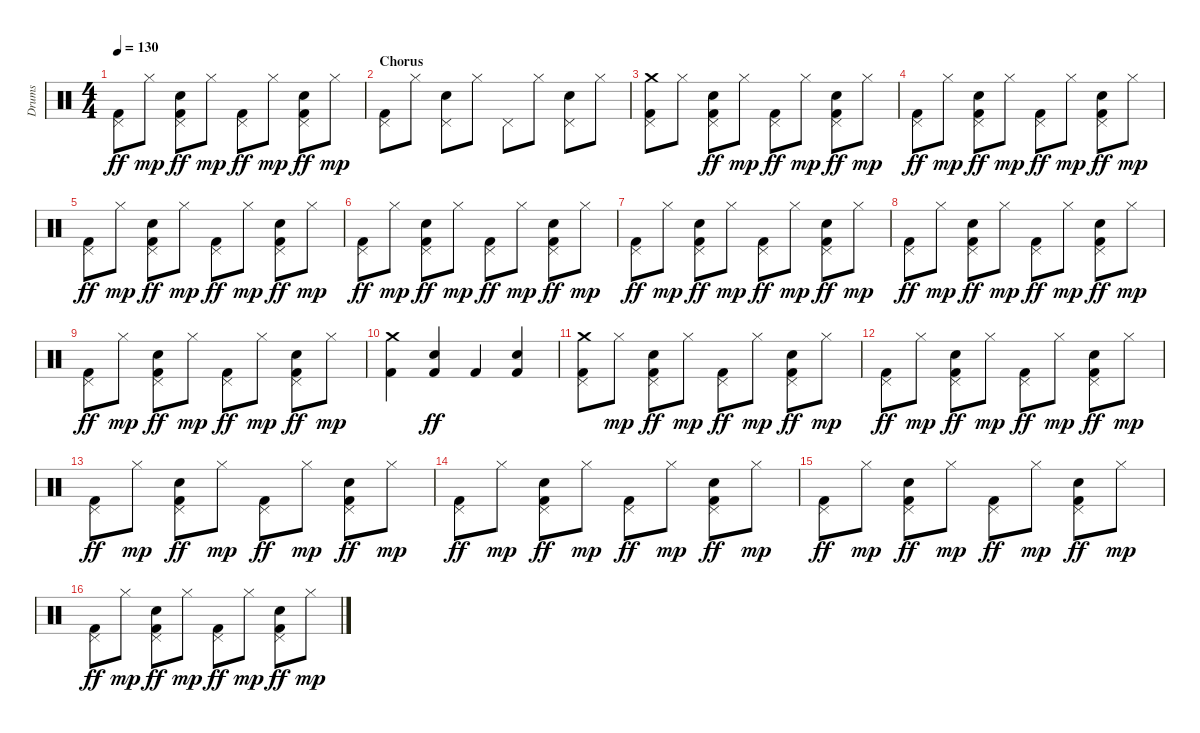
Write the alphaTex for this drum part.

\track ("Drums" "Drums") {instrument percussion}
\staff {score}
\articulation defaults
\ts (4 4)
\tempo 130
\clef neutral
\ks c
("Pedal Hi-Hat (hit)" "Kick (hit) 2").8{dy ff} "Hi-Hat (closed)".8{dy mp} ("Electric Snare (hit)" "Pedal Hi-Hat (hit)" "Kick (hit) 2").8{dy ff} "Hi-Hat (closed)".8{dy mp} ("Pedal Hi-Hat (hit)" "Kick (hit) 2").8{dy ff} "Hi-Hat (closed)".8{dy mp} ("Electric Snare (hit)" "Pedal Hi-Hat (hit)" "Kick (hit) 2").8{dy ff} "Hi-Hat (closed)".8{dy mp} |
\section ("" "Chorus")
("Kick (hit) 2" "Pedal Hi-Hat (hit)").8 "Hi-Hat (closed)".8 ("Electric Snare (hit)" "Pedal Hi-Hat (hit)").8 "Hi-Hat (closed)".8 "Pedal Hi-Hat (hit)".8 "Hi-Hat (closed)".8 ("Electric Snare (hit)" "Pedal Hi-Hat (hit)").8 "Hi-Hat (closed)".8 |
("Pedal Hi-Hat (hit)" "Kick (hit) 2" "Crash medium (hit)").8 "Hi-Hat (closed)".8 ("Electric Snare (hit)" "Pedal Hi-Hat (hit)" "Kick (hit) 2").8{dy ff} "Hi-Hat (closed)".8{dy mp} ("Pedal Hi-Hat (hit)" "Kick (hit) 2").8{dy ff} "Hi-Hat (closed)".8{dy mp} ("Electric Snare (hit)" "Pedal Hi-Hat (hit)" "Kick (hit) 2").8{dy ff} "Hi-Hat (closed)".8{dy mp} |
("Pedal Hi-Hat (hit)" "Kick (hit) 2").8{dy ff} "Hi-Hat (closed)".8{dy mp} ("Electric Snare (hit)" "Pedal Hi-Hat (hit)" "Kick (hit) 2").8{dy ff} "Hi-Hat (closed)".8{dy mp} ("Pedal Hi-Hat (hit)" "Kick (hit) 2").8{dy ff} "Hi-Hat (closed)".8{dy mp} ("Electric Snare (hit)" "Pedal Hi-Hat (hit)" "Kick (hit) 2").8{dy ff} "Hi-Hat (closed)".8{dy mp} |
("Pedal Hi-Hat (hit)" "Kick (hit) 2").8{dy ff} "Hi-Hat (closed)".8{dy mp} ("Electric Snare (hit)" "Pedal Hi-Hat (hit)" "Kick (hit) 2").8{dy ff} "Hi-Hat (closed)".8{dy mp} ("Pedal Hi-Hat (hit)" "Kick (hit) 2").8{dy ff} "Hi-Hat (closed)".8{dy mp} ("Electric Snare (hit)" "Pedal Hi-Hat (hit)" "Kick (hit) 2").8{dy ff} "Hi-Hat (closed)".8{dy mp} |
("Pedal Hi-Hat (hit)" "Kick (hit) 2").8{dy ff} "Hi-Hat (closed)".8{dy mp} ("Electric Snare (hit)" "Pedal Hi-Hat (hit)" "Kick (hit) 2").8{dy ff} "Hi-Hat (closed)".8{dy mp} ("Pedal Hi-Hat (hit)" "Kick (hit) 2").8{dy ff} "Hi-Hat (closed)".8{dy mp} ("Electric Snare (hit)" "Pedal Hi-Hat (hit)" "Kick (hit) 2").8{dy ff} "Hi-Hat (closed)".8{dy mp} |
("Pedal Hi-Hat (hit)" "Kick (hit) 2").8{dy ff} "Hi-Hat (closed)".8{dy mp} ("Electric Snare (hit)" "Pedal Hi-Hat (hit)" "Kick (hit) 2").8{dy ff} "Hi-Hat (closed)".8{dy mp} ("Pedal Hi-Hat (hit)" "Kick (hit) 2").8{dy ff} "Hi-Hat (closed)".8{dy mp} ("Electric Snare (hit)" "Pedal Hi-Hat (hit)" "Kick (hit) 2").8{dy ff} "Hi-Hat (closed)".8{dy mp} |
("Pedal Hi-Hat (hit)" "Kick (hit) 2").8{dy ff} "Hi-Hat (closed)".8{dy mp} ("Electric Snare (hit)" "Pedal Hi-Hat (hit)" "Kick (hit) 2").8{dy ff} "Hi-Hat (closed)".8{dy mp} ("Pedal Hi-Hat (hit)" "Kick (hit) 2").8{dy ff} "Hi-Hat (closed)".8{dy mp} ("Electric Snare (hit)" "Pedal Hi-Hat (hit)" "Kick (hit) 2").8{dy ff} "Hi-Hat (closed)".8{dy mp} |
("Pedal Hi-Hat (hit)" "Kick (hit) 2").8{dy ff} "Hi-Hat (closed)".8{dy mp} ("Electric Snare (hit)" "Pedal Hi-Hat (hit)" "Kick (hit) 2").8{dy ff} "Hi-Hat (closed)".8{dy mp} ("Pedal Hi-Hat (hit)" "Kick (hit) 2").8{dy ff} "Hi-Hat (closed)".8{dy mp} ("Electric Snare (hit)" "Pedal Hi-Hat (hit)" "Kick (hit) 2").8{dy ff} "Hi-Hat (closed)".8{dy mp} |
("Kick (hit) 2" "Crash medium (hit)").4 ("Electric Snare (hit)" "Kick (hit) 2").4{dy ff} "Kick (hit) 2".4 ("Electric Snare (hit)" "Kick (hit) 2").4 |
("Crash medium (hit)" "Pedal Hi-Hat (hit)" "Kick (hit) 2").8 "Hi-Hat (closed)".8{dy mp} ("Electric Snare (hit)" "Pedal Hi-Hat (hit)" "Kick (hit) 2").8{dy ff} "Hi-Hat (closed)".8{dy mp} ("Pedal Hi-Hat (hit)" "Kick (hit) 2").8{dy ff} "Hi-Hat (closed)".8{dy mp} ("Electric Snare (hit)" "Pedal Hi-Hat (hit)" "Kick (hit) 2").8{dy ff} "Hi-Hat (closed)".8{dy mp} |
("Pedal Hi-Hat (hit)" "Kick (hit) 2").8{dy ff} "Hi-Hat (closed)".8{dy mp} ("Electric Snare (hit)" "Pedal Hi-Hat (hit)" "Kick (hit) 2").8{dy ff} "Hi-Hat (closed)".8{dy mp} ("Pedal Hi-Hat (hit)" "Kick (hit) 2").8{dy ff} "Hi-Hat (closed)".8{dy mp} ("Electric Snare (hit)" "Pedal Hi-Hat (hit)" "Kick (hit) 2").8{dy ff} "Hi-Hat (closed)".8{dy mp} |
("Pedal Hi-Hat (hit)" "Kick (hit) 2").8{dy ff} "Hi-Hat (closed)".8{dy mp} ("Electric Snare (hit)" "Pedal Hi-Hat (hit)" "Kick (hit) 2").8{dy ff} "Hi-Hat (closed)".8{dy mp} ("Pedal Hi-Hat (hit)" "Kick (hit) 2").8{dy ff} "Hi-Hat (closed)".8{dy mp} ("Electric Snare (hit)" "Pedal Hi-Hat (hit)" "Kick (hit) 2").8{dy ff} "Hi-Hat (closed)".8{dy mp} |
("Pedal Hi-Hat (hit)" "Kick (hit) 2").8{dy ff} "Hi-Hat (closed)".8{dy mp} ("Electric Snare (hit)" "Pedal Hi-Hat (hit)" "Kick (hit) 2").8{dy ff} "Hi-Hat (closed)".8{dy mp} ("Pedal Hi-Hat (hit)" "Kick (hit) 2").8{dy ff} "Hi-Hat (closed)".8{dy mp} ("Electric Snare (hit)" "Pedal Hi-Hat (hit)" "Kick (hit) 2").8{dy ff} "Hi-Hat (closed)".8{dy mp} |
("Pedal Hi-Hat (hit)" "Kick (hit) 2").8{dy ff} "Hi-Hat (closed)".8{dy mp} ("Electric Snare (hit)" "Pedal Hi-Hat (hit)" "Kick (hit) 2").8{dy ff} "Hi-Hat (closed)".8{dy mp} ("Pedal Hi-Hat (hit)" "Kick (hit) 2").8{dy ff} "Hi-Hat (closed)".8{dy mp} ("Electric Snare (hit)" "Pedal Hi-Hat (hit)" "Kick (hit) 2").8{dy ff} "Hi-Hat (closed)".8{dy mp} |
("Pedal Hi-Hat (hit)" "Kick (hit) 2").8{dy ff} "Hi-Hat (closed)".8{dy mp} ("Electric Snare (hit)" "Pedal Hi-Hat (hit)" "Kick (hit) 2").8{dy ff} "Hi-Hat (closed)".8{dy mp} ("Pedal Hi-Hat (hit)" "Kick (hit) 2").8{dy ff} "Hi-Hat (closed)".8{dy mp} ("Electric Snare (hit)" "Pedal Hi-Hat (hit)" "Kick (hit) 2").8{dy ff} "Hi-Hat (closed)".8{dy mp}
